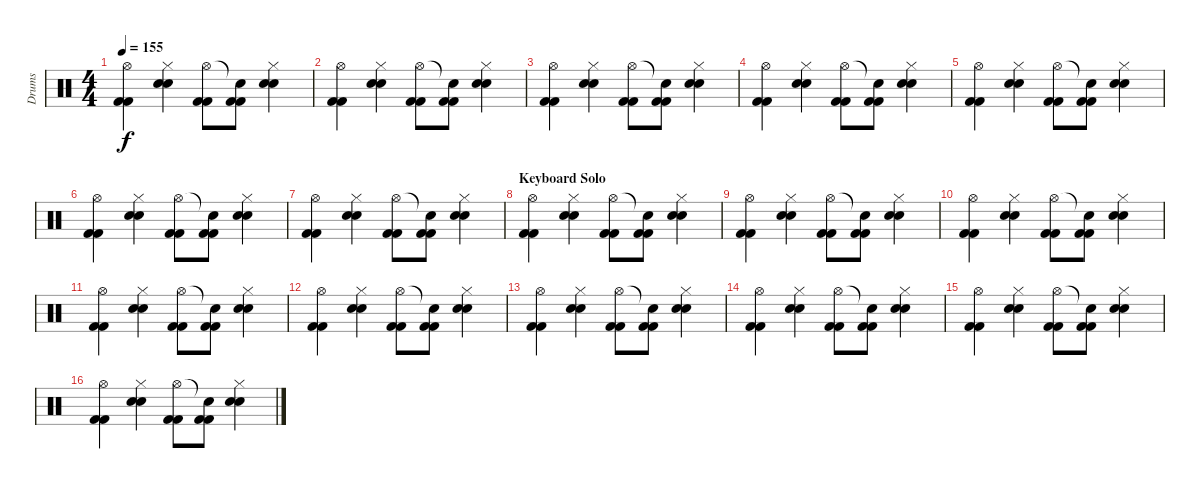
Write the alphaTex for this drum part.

\track ("Drums" "Drums") {instrument percussion}
\staff {score}
\articulation defaults
\ts (4 4)
\tempo 155
\clef neutral
\ks c
("Hi-Hat (open)" "Kick (hit) 2" "Kick (hit) 2").4{dy f} ("Hi-Hat (closed)" "Snare (hit) 2" "Snare (hit) 2").4 ("Hi-Hat (open)" "Kick (hit) 2" "Kick (hit) 2").8 ("Snare (hit)"{t} "Kick (hit) 2" "Kick (hit) 2").8 ("Hi-Hat (closed)" "Snare (hit) 2" "Snare (hit) 2").4 |
("Hi-Hat (open)" "Kick (hit) 2" "Kick (hit) 2").4 ("Hi-Hat (closed)" "Snare (hit) 2" "Snare (hit) 2").4 ("Hi-Hat (open)" "Kick (hit) 2" "Kick (hit) 2").8 ("Snare (hit)"{t} "Kick (hit) 2" "Kick (hit) 2").8 ("Hi-Hat (closed)" "Snare (hit) 2" "Snare (hit) 2").4 |
("Hi-Hat (open)" "Kick (hit) 2" "Kick (hit) 2").4 ("Hi-Hat (closed)" "Snare (hit) 2" "Snare (hit) 2").4 ("Hi-Hat (open)" "Kick (hit) 2" "Kick (hit) 2").8 ("Snare (hit)"{t} "Kick (hit) 2" "Kick (hit) 2").8 ("Hi-Hat (closed)" "Snare (hit) 2" "Snare (hit) 2").4 |
("Hi-Hat (open)" "Kick (hit) 2" "Kick (hit) 2").4 ("Hi-Hat (closed)" "Snare (hit) 2" "Snare (hit) 2").4 ("Hi-Hat (open)" "Kick (hit) 2" "Kick (hit) 2").8 ("Snare (hit)"{t} "Kick (hit) 2" "Kick (hit) 2").8 ("Hi-Hat (closed)" "Snare (hit) 2" "Snare (hit) 2").4 |
("Hi-Hat (open)" "Kick (hit) 2" "Kick (hit) 2").4 ("Hi-Hat (closed)" "Snare (hit) 2" "Snare (hit) 2").4 ("Hi-Hat (open)" "Kick (hit) 2" "Kick (hit) 2").8 ("Snare (hit)"{t} "Kick (hit) 2" "Kick (hit) 2").8 ("Hi-Hat (closed)" "Snare (hit) 2" "Snare (hit) 2").4 |
("Hi-Hat (open)" "Kick (hit) 2" "Kick (hit) 2").4 ("Hi-Hat (closed)" "Snare (hit) 2" "Snare (hit) 2").4 ("Hi-Hat (open)" "Kick (hit) 2" "Kick (hit) 2").8 ("Snare (hit)"{t} "Kick (hit) 2" "Kick (hit) 2").8 ("Hi-Hat (closed)" "Snare (hit) 2" "Snare (hit) 2").4 |
("Hi-Hat (open)" "Kick (hit) 2" "Kick (hit) 2").4 ("Hi-Hat (closed)" "Snare (hit) 2" "Snare (hit) 2").4 ("Hi-Hat (open)" "Kick (hit) 2" "Kick (hit) 2").8 ("Snare (hit)"{t} "Kick (hit) 2" "Kick (hit) 2").8 ("Hi-Hat (closed)" "Snare (hit) 2" "Snare (hit) 2").4 |
\section ("" "Keyboard Solo")
("Hi-Hat (open)" "Kick (hit) 2" "Kick (hit) 2").4 ("Hi-Hat (closed)" "Snare (hit) 2" "Snare (hit) 2").4 ("Hi-Hat (open)" "Kick (hit) 2" "Kick (hit) 2").8 ("Snare (hit)"{t} "Kick (hit) 2" "Kick (hit) 2").8 ("Hi-Hat (closed)" "Snare (hit) 2" "Snare (hit) 2").4 |
("Hi-Hat (open)" "Kick (hit) 2" "Kick (hit) 2").4 ("Hi-Hat (closed)" "Snare (hit) 2" "Snare (hit) 2").4 ("Hi-Hat (open)" "Kick (hit) 2" "Kick (hit) 2").8 ("Snare (hit)"{t} "Kick (hit) 2" "Kick (hit) 2").8 ("Hi-Hat (closed)" "Snare (hit) 2" "Snare (hit) 2").4 |
("Hi-Hat (open)" "Kick (hit) 2" "Kick (hit) 2").4 ("Hi-Hat (closed)" "Snare (hit) 2" "Snare (hit) 2").4 ("Hi-Hat (open)" "Kick (hit) 2" "Kick (hit) 2").8 ("Snare (hit)"{t} "Kick (hit) 2" "Kick (hit) 2").8 ("Hi-Hat (closed)" "Snare (hit) 2" "Snare (hit) 2").4 |
("Hi-Hat (open)" "Kick (hit) 2" "Kick (hit) 2").4 ("Hi-Hat (closed)" "Snare (hit) 2" "Snare (hit) 2").4 ("Hi-Hat (open)" "Kick (hit) 2" "Kick (hit) 2").8 ("Snare (hit)"{t} "Kick (hit) 2" "Kick (hit) 2").8 ("Hi-Hat (closed)" "Snare (hit) 2" "Snare (hit) 2").4 |
("Hi-Hat (open)" "Kick (hit) 2" "Kick (hit) 2").4 ("Hi-Hat (closed)" "Snare (hit) 2" "Snare (hit) 2").4 ("Hi-Hat (open)" "Kick (hit) 2" "Kick (hit) 2").8 ("Snare (hit)"{t} "Kick (hit) 2" "Kick (hit) 2").8 ("Hi-Hat (closed)" "Snare (hit) 2" "Snare (hit) 2").4 |
("Hi-Hat (open)" "Kick (hit) 2" "Kick (hit) 2").4 ("Hi-Hat (closed)" "Snare (hit) 2" "Snare (hit) 2").4 ("Hi-Hat (open)" "Kick (hit) 2" "Kick (hit) 2").8 ("Snare (hit)"{t} "Kick (hit) 2" "Kick (hit) 2").8 ("Hi-Hat (closed)" "Snare (hit) 2" "Snare (hit) 2").4 |
("Hi-Hat (open)" "Kick (hit) 2" "Kick (hit) 2").4 ("Hi-Hat (closed)" "Snare (hit) 2" "Snare (hit) 2").4 ("Hi-Hat (open)" "Kick (hit) 2" "Kick (hit) 2").8 ("Snare (hit)"{t} "Kick (hit) 2" "Kick (hit) 2").8 ("Hi-Hat (closed)" "Snare (hit) 2" "Snare (hit) 2").4 |
("Hi-Hat (open)" "Kick (hit) 2" "Kick (hit) 2").4 ("Hi-Hat (closed)" "Snare (hit) 2" "Snare (hit) 2").4 ("Hi-Hat (open)" "Kick (hit) 2" "Kick (hit) 2").8 ("Snare (hit)"{t} "Kick (hit) 2" "Kick (hit) 2").8 ("Hi-Hat (closed)" "Snare (hit) 2" "Snare (hit) 2").4 |
("Hi-Hat (open)" "Kick (hit) 2" "Kick (hit) 2").4 ("Hi-Hat (closed)" "Snare (hit) 2" "Snare (hit) 2").4 ("Hi-Hat (open)" "Kick (hit) 2" "Kick (hit) 2").8 ("Snare (hit)"{t} "Kick (hit) 2" "Kick (hit) 2").8 ("Hi-Hat (closed)" "Snare (hit) 2" "Snare (hit) 2").4
